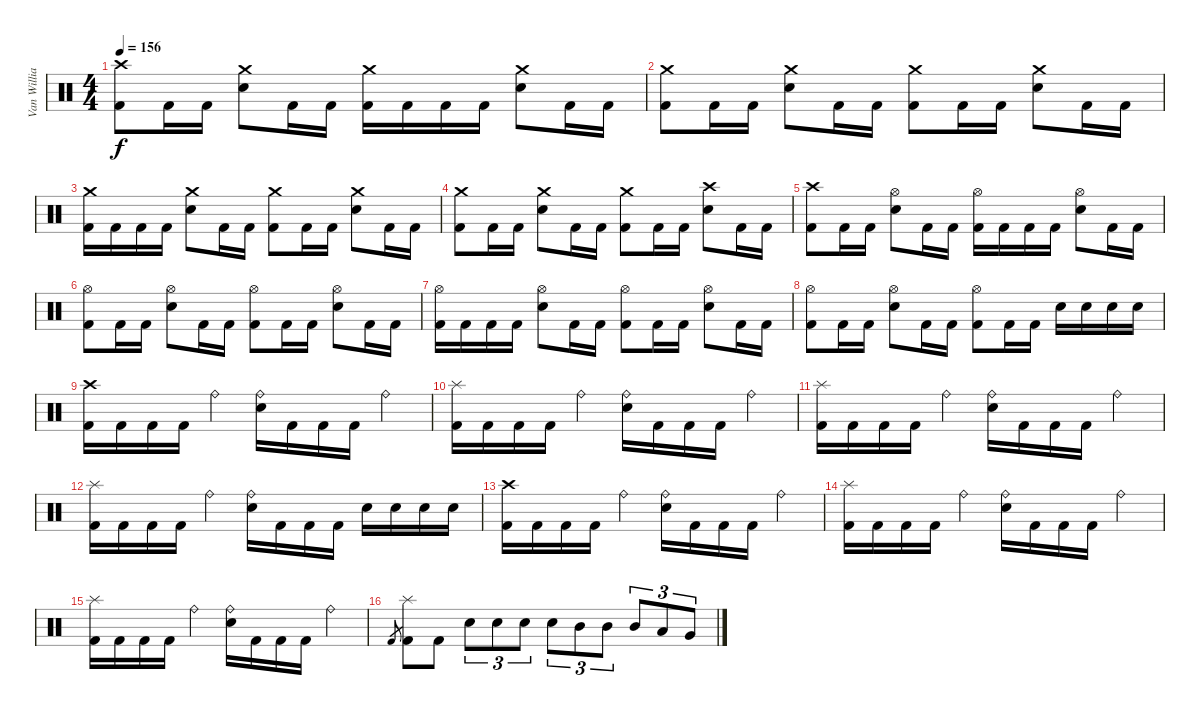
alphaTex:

\track ("Van Williams" "Van Willia") {instrument percussion}
\staff {score}
\articulation defaults
\ts (4 4)
\section ("" "")
\tempo 156
\clef neutral
\ks c
("Crash high (hit)" "Kick (hit) 2").8{dy f} "Kick (hit) 2".16 "Kick (hit) 2".16 ("Crash medium (hit)" "Electric Snare (hit)").8 "Kick (hit) 2".16 "Kick (hit) 2".16 ("Crash medium (hit)" "Kick (hit) 2").16 "Kick (hit) 2".16 "Kick (hit) 2".16 "Kick (hit) 2".16 ("Crash medium (hit)" "Electric Snare (hit)").8 "Kick (hit) 2".16 "Kick (hit) 2".16 |
("Crash medium (hit)" "Kick (hit) 2").8 "Kick (hit) 2".16 "Kick (hit) 2".16 ("Crash medium (hit)" "Electric Snare (hit)").8 "Kick (hit) 2".16 "Kick (hit) 2".16 ("Crash medium (hit)" "Kick (hit) 2").8 "Kick (hit) 2".16 "Kick (hit) 2".16 ("Crash medium (hit)" "Electric Snare (hit)").8 "Kick (hit) 2".16 "Kick (hit) 2".16 |
("Crash medium (hit)" "Kick (hit) 2").16 "Kick (hit) 2".16 "Kick (hit) 2".16 "Kick (hit) 2".16 ("Crash medium (hit)" "Electric Snare (hit)").8 "Kick (hit) 2".16 "Kick (hit) 2".16 ("Crash medium (hit)" "Kick (hit) 2").8 "Kick (hit) 2".16 "Kick (hit) 2".16 ("Crash medium (hit)" "Electric Snare (hit)").8 "Kick (hit) 2".16 "Kick (hit) 2".16 |
("Crash medium (hit)" "Kick (hit) 2").8 "Kick (hit) 2".16 "Kick (hit) 2".16 ("Crash medium (hit)" "Electric Snare (hit)").8 "Kick (hit) 2".16 "Kick (hit) 2".16 ("Crash medium (hit)" "Kick (hit) 2").8 "Kick (hit) 2".16 "Kick (hit) 2".16 ("Crash high (hit)" "Electric Snare (hit)").8 "Kick (hit) 2".16 "Kick (hit) 2".16 |
("Crash high (hit)" "Kick (hit) 2").8 "Kick (hit) 2".16 "Kick (hit) 2".16 ("Hi-Hat (open)" "Electric Snare (hit)").8 "Kick (hit) 2".16 "Kick (hit) 2".16 ("Hi-Hat (open)" "Kick (hit) 2").16 "Kick (hit) 2".16 "Kick (hit) 2".16 "Kick (hit) 2".16 ("Hi-Hat (open)" "Electric Snare (hit)").8 "Kick (hit) 2".16 "Kick (hit) 2".16 |
("Hi-Hat (open)" "Kick (hit) 2").8 "Kick (hit) 2".16 "Kick (hit) 2".16 ("Hi-Hat (open)" "Electric Snare (hit)").8 "Kick (hit) 2".16 "Kick (hit) 2".16 ("Hi-Hat (open)" "Kick (hit) 2").8 "Kick (hit) 2".16 "Kick (hit) 2".16 ("Hi-Hat (open)" "Electric Snare (hit)").8 "Kick (hit) 2".16 "Kick (hit) 2".16 |
("Hi-Hat (open)" "Kick (hit) 2").16 "Kick (hit) 2".16 "Kick (hit) 2".16 "Kick (hit) 2".16 ("Hi-Hat (open)" "Electric Snare (hit)").8 "Kick (hit) 2".16 "Kick (hit) 2".16 ("Hi-Hat (open)" "Kick (hit) 2").8 "Kick (hit) 2".16 "Kick (hit) 2".16 ("Hi-Hat (open)" "Electric Snare (hit)").8 "Kick (hit) 2".16 "Kick (hit) 2".16 |
("Hi-Hat (open)" "Kick (hit) 2").8 "Kick (hit) 2".16 "Kick (hit) 2".16 ("Hi-Hat (open)" "Electric Snare (hit)").8 "Kick (hit) 2".16 "Kick (hit) 2".16 ("Hi-Hat (open)" "Kick (hit) 2").8 "Kick (hit) 2".16 "Kick (hit) 2".16 "Electric Snare (hit)".16 "Electric Snare (hit)".16 "Electric Snare (hit)".16 "Electric Snare (hit)".16 |
\section ("" "")
("Crash high (hit)" "Kick (hit) 2").16 "Kick (hit) 2".16 "Kick (hit) 2".16 "Kick (hit) 2".16 "Ride (bell)".4 ("Ride (bell)" "Electric Snare (hit)").16 "Kick (hit) 2".16 "Kick (hit) 2".16 "Kick (hit) 2".16 "Ride (bell)".4 |
("Splash (hit)" "Kick (hit) 2").16 "Kick (hit) 2".16 "Kick (hit) 2".16 "Kick (hit) 2".16 "Ride (bell)".4 ("Ride (bell)" "Electric Snare (hit)").16 "Kick (hit) 2".16 "Kick (hit) 2".16 "Kick (hit) 2".16 "Ride (bell)".4 |
("Splash (hit)" "Kick (hit) 2").16 "Kick (hit) 2".16 "Kick (hit) 2".16 "Kick (hit) 2".16 "Ride (bell)".4 ("Ride (bell)" "Electric Snare (hit)").16 "Kick (hit) 2".16 "Kick (hit) 2".16 "Kick (hit) 2".16 "Ride (bell)".4 |
("Splash (hit)" "Kick (hit) 2").16 "Kick (hit) 2".16 "Kick (hit) 2".16 "Kick (hit) 2".16 "Ride (bell)".4 ("Ride (bell)" "Electric Snare (hit)").16 "Kick (hit) 2".16 "Kick (hit) 2".16 "Kick (hit) 2".16 "Electric Snare (hit)".16 "Electric Snare (hit)".16 "Electric Snare (hit)".16 "Electric Snare (hit)".16 |
("Crash high (hit)" "Kick (hit) 2").16 "Kick (hit) 2".16 "Kick (hit) 2".16 "Kick (hit) 2".16 "Ride (bell)".4 ("Ride (bell)" "Electric Snare (hit)").16 "Kick (hit) 2".16 "Kick (hit) 2".16 "Kick (hit) 2".16 "Ride (bell)".4 |
("Splash (hit)" "Kick (hit) 2").16 "Kick (hit) 2".16 "Kick (hit) 2".16 "Kick (hit) 2".16 "Ride (bell)".4 ("Ride (bell)" "Electric Snare (hit)").16 "Kick (hit) 2".16 "Kick (hit) 2".16 "Kick (hit) 2".16 "Ride (bell)".4 |
("Splash (hit)" "Kick (hit) 2").16 "Kick (hit) 2".16 "Kick (hit) 2".16 "Kick (hit) 2".16 "Ride (bell)".4 ("Ride (bell)" "Electric Snare (hit)").16 "Kick (hit) 2".16 "Kick (hit) 2".16 "Kick (hit) 2".16 "Ride (bell)".4 |
"Kick (hit) 2".8{gr} ("Splash (hit)" "Kick (hit) 2").8 "Kick (hit) 2".8 "Electric Snare (hit)".8{tu (3 2)} "Electric Snare (hit)".8{tu (3 2)} "Electric Snare (hit)".8{tu (3 2)} "Electric Snare (hit)".8{tu (3 2)} "Mid Tom (hit)".8{tu (3 2)} "Mid Tom (hit)".8{tu (3 2)} "Mid Tom (hit)".8{tu (3 2)} "Low Tom (hit)".8{tu (3 2)} "Very Low Tom (hit)".8{tu (3 2)}
